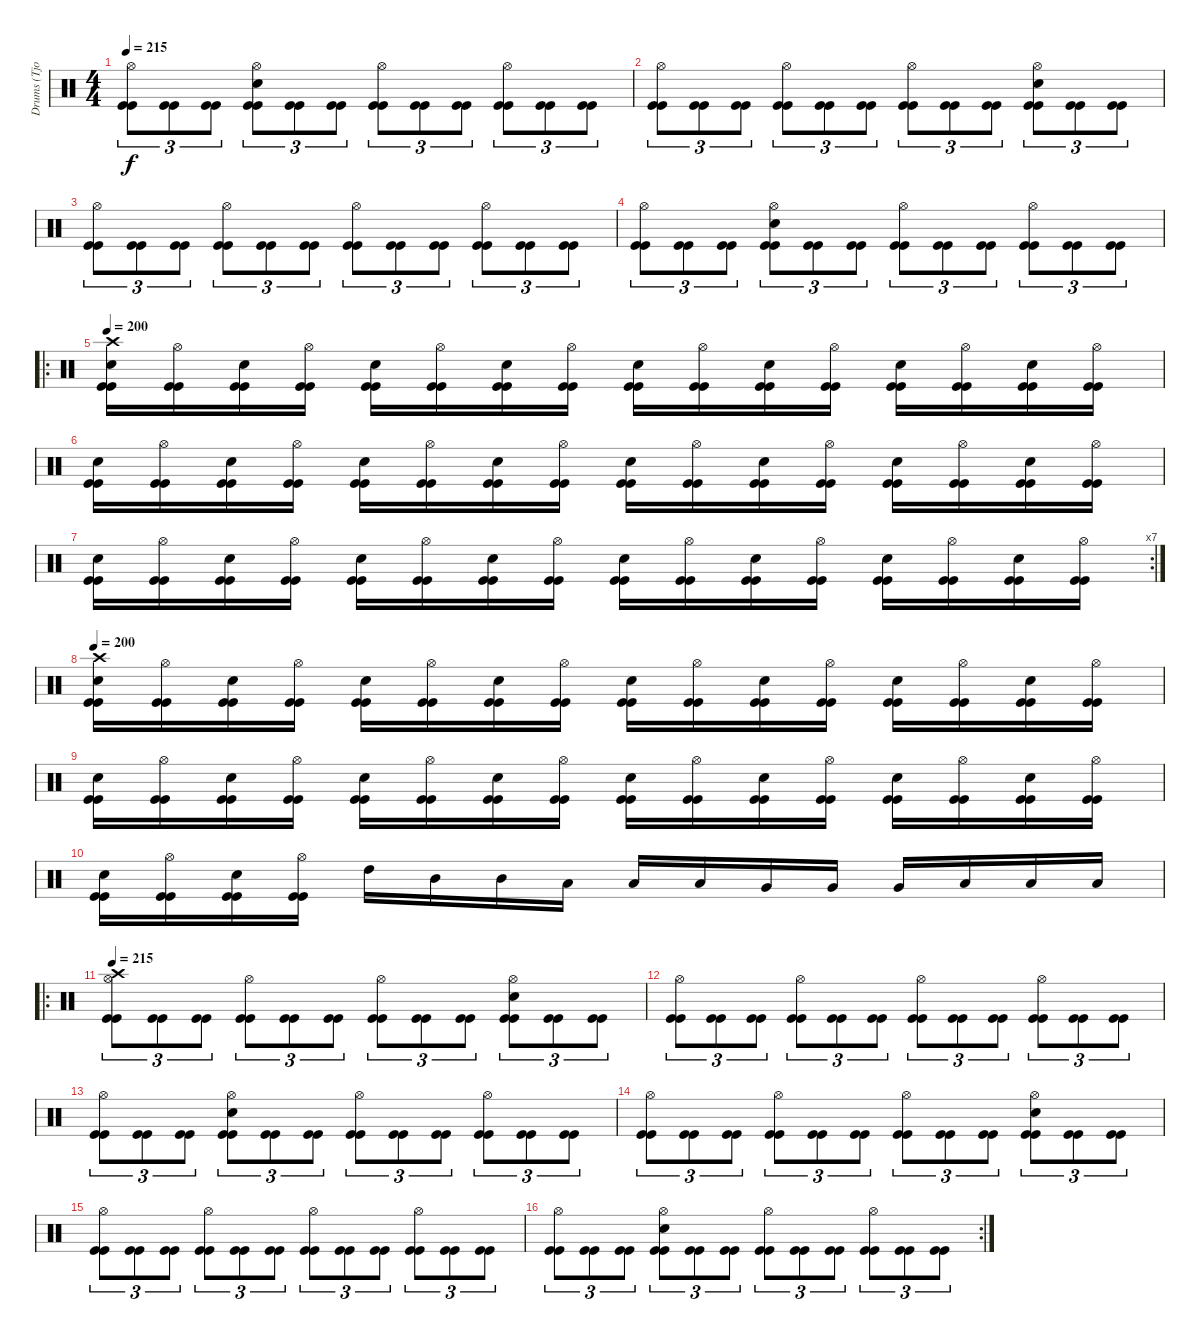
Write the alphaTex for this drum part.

\track ("Drums (Tjodalv)" "Drums (Tjo") {instrument percussion}
\staff {score}
\articulation defaults
\ts (4 4)
\tempo 215
\clef neutral
\ks c
("Hi-Hat (open)" "Kick (hit)" "Kick (hit)").8{tu (3 2) dy f} ("Kick (hit)" "Kick (hit)").8{tu (3 2)} ("Kick (hit)" "Kick (hit)").8{tu (3 2)} ("Snare (hit) 2" "Hi-Hat (open)" "Kick (hit)" "Kick (hit)").8{tu (3 2)} ("Kick (hit)" "Kick (hit)").8{tu (3 2)} ("Kick (hit)" "Kick (hit)").8{tu (3 2)} ("Hi-Hat (open)" "Kick (hit)" "Kick (hit)").8{tu (3 2)} ("Kick (hit)" "Kick (hit)").8{tu (3 2)} ("Kick (hit)" "Kick (hit)").8{tu (3 2)} ("Hi-Hat (open)" "Kick (hit)" "Kick (hit)").8{tu (3 2)} ("Kick (hit)" "Kick (hit)").8{tu (3 2)} ("Kick (hit)" "Kick (hit)").8{tu (3 2)} |
("Hi-Hat (open)" "Kick (hit)" "Kick (hit)").8{tu (3 2)} ("Kick (hit)" "Kick (hit)").8{tu (3 2)} ("Kick (hit)" "Kick (hit)").8{tu (3 2)} ("Hi-Hat (open)" "Kick (hit)" "Kick (hit)").8{tu (3 2)} ("Kick (hit)" "Kick (hit)").8{tu (3 2)} ("Kick (hit)" "Kick (hit)").8{tu (3 2)} ("Hi-Hat (open)" "Kick (hit)" "Kick (hit)").8{tu (3 2)} ("Kick (hit)" "Kick (hit)").8{tu (3 2)} ("Kick (hit)" "Kick (hit)").8{tu (3 2)} ("Snare (hit) 2" "Hi-Hat (open)" "Kick (hit)" "Kick (hit)").8{tu (3 2)} ("Kick (hit)" "Kick (hit)").8{tu (3 2)} ("Kick (hit)" "Kick (hit)").8{tu (3 2)} |
("Hi-Hat (open)" "Kick (hit)" "Kick (hit)").8{tu (3 2)} ("Kick (hit)" "Kick (hit)").8{tu (3 2)} ("Kick (hit)" "Kick (hit)").8{tu (3 2)} ("Hi-Hat (open)" "Kick (hit)" "Kick (hit)").8{tu (3 2)} ("Kick (hit)" "Kick (hit)").8{tu (3 2)} ("Kick (hit)" "Kick (hit)").8{tu (3 2)} ("Hi-Hat (open)" "Kick (hit)" "Kick (hit)").8{tu (3 2)} ("Kick (hit)" "Kick (hit)").8{tu (3 2)} ("Kick (hit)" "Kick (hit)").8{tu (3 2)} ("Hi-Hat (open)" "Kick (hit)" "Kick (hit)").8{tu (3 2)} ("Kick (hit)" "Kick (hit)").8{tu (3 2)} ("Kick (hit)" "Kick (hit)").8{tu (3 2)} |
("Hi-Hat (open)" "Kick (hit)" "Kick (hit)").8{tu (3 2)} ("Kick (hit)" "Kick (hit)").8{tu (3 2)} ("Kick (hit)" "Kick (hit)").8{tu (3 2)} ("Snare (hit) 2" "Hi-Hat (open)" "Kick (hit)" "Kick (hit)").8{tu (3 2)} ("Kick (hit)" "Kick (hit)").8{tu (3 2)} ("Kick (hit)" "Kick (hit)").8{tu (3 2)} ("Hi-Hat (open)" "Kick (hit)" "Kick (hit)").8{tu (3 2)} ("Kick (hit)" "Kick (hit)").8{tu (3 2)} ("Kick (hit)" "Kick (hit)").8{tu (3 2)} ("Hi-Hat (open)" "Kick (hit)" "Kick (hit)").8{tu (3 2)} ("Kick (hit)" "Kick (hit)").8{tu (3 2)} ("Kick (hit)" "Kick (hit)").8{tu (3 2)} |
\ro
\tempo 200
("Crash high (hit)" "Snare (hit) 2" "Kick (hit)" "Kick (hit)").16 ("Hi-Hat (open)" "Kick (hit)" "Kick (hit)").16 ("Snare (hit) 2" "Kick (hit)" "Kick (hit)").16 ("Hi-Hat (open)" "Kick (hit)" "Kick (hit)").16 ("Snare (hit) 2" "Kick (hit)" "Kick (hit)").16 ("Hi-Hat (open)" "Kick (hit)" "Kick (hit)").16 ("Snare (hit) 2" "Kick (hit)" "Kick (hit)").16 ("Hi-Hat (open)" "Kick (hit)" "Kick (hit)").16 ("Snare (hit) 2" "Kick (hit)" "Kick (hit)").16 ("Hi-Hat (open)" "Kick (hit)" "Kick (hit)").16 ("Snare (hit) 2" "Kick (hit)" "Kick (hit)").16 ("Hi-Hat (open)" "Kick (hit)" "Kick (hit)").16 ("Snare (hit) 2" "Kick (hit)" "Kick (hit)").16 ("Hi-Hat (open)" "Kick (hit)" "Kick (hit)").16 ("Snare (hit) 2" "Kick (hit)" "Kick (hit)").16 ("Hi-Hat (open)" "Kick (hit)" "Kick (hit)").16 |
("Snare (hit) 2" "Kick (hit)" "Kick (hit)").16 ("Hi-Hat (open)" "Kick (hit)" "Kick (hit)").16 ("Snare (hit) 2" "Kick (hit)" "Kick (hit)").16 ("Hi-Hat (open)" "Kick (hit)" "Kick (hit)").16 ("Snare (hit) 2" "Kick (hit)" "Kick (hit)").16 ("Hi-Hat (open)" "Kick (hit)" "Kick (hit)").16 ("Snare (hit) 2" "Kick (hit)" "Kick (hit)").16 ("Hi-Hat (open)" "Kick (hit)" "Kick (hit)").16 ("Snare (hit) 2" "Kick (hit)" "Kick (hit)").16 ("Hi-Hat (open)" "Kick (hit)" "Kick (hit)").16 ("Snare (hit) 2" "Kick (hit)" "Kick (hit)").16 ("Hi-Hat (open)" "Kick (hit)" "Kick (hit)").16 ("Snare (hit) 2" "Kick (hit)" "Kick (hit)").16 ("Hi-Hat (open)" "Kick (hit)" "Kick (hit)").16 ("Snare (hit) 2" "Kick (hit)" "Kick (hit)").16 ("Hi-Hat (open)" "Kick (hit)" "Kick (hit)").16 |
\rc 7
("Snare (hit) 2" "Kick (hit)" "Kick (hit)").16 ("Hi-Hat (open)" "Kick (hit)" "Kick (hit)").16 ("Snare (hit) 2" "Kick (hit)" "Kick (hit)").16 ("Hi-Hat (open)" "Kick (hit)" "Kick (hit)").16 ("Snare (hit) 2" "Kick (hit)" "Kick (hit)").16 ("Hi-Hat (open)" "Kick (hit)" "Kick (hit)").16 ("Snare (hit) 2" "Kick (hit)" "Kick (hit)").16 ("Hi-Hat (open)" "Kick (hit)" "Kick (hit)").16 ("Snare (hit) 2" "Kick (hit)" "Kick (hit)").16 ("Hi-Hat (open)" "Kick (hit)" "Kick (hit)").16 ("Snare (hit) 2" "Kick (hit)" "Kick (hit)").16 ("Hi-Hat (open)" "Kick (hit)" "Kick (hit)").16 ("Snare (hit) 2" "Kick (hit)" "Kick (hit)").16 ("Hi-Hat (open)" "Kick (hit)" "Kick (hit)").16 ("Snare (hit) 2" "Kick (hit)" "Kick (hit)").16 ("Hi-Hat (open)" "Kick (hit)" "Kick (hit)").16 |
\tempo 200
("Crash high (hit)" "Snare (hit) 2" "Kick (hit)" "Kick (hit)").16 ("Hi-Hat (open)" "Kick (hit)" "Kick (hit)").16 ("Snare (hit) 2" "Kick (hit)" "Kick (hit)").16 ("Hi-Hat (open)" "Kick (hit)" "Kick (hit)").16 ("Snare (hit) 2" "Kick (hit)" "Kick (hit)").16 ("Hi-Hat (open)" "Kick (hit)" "Kick (hit)").16 ("Snare (hit) 2" "Kick (hit)" "Kick (hit)").16 ("Hi-Hat (open)" "Kick (hit)" "Kick (hit)").16 ("Snare (hit) 2" "Kick (hit)" "Kick (hit)").16 ("Hi-Hat (open)" "Kick (hit)" "Kick (hit)").16 ("Snare (hit) 2" "Kick (hit)" "Kick (hit)").16 ("Hi-Hat (open)" "Kick (hit)" "Kick (hit)").16 ("Snare (hit) 2" "Kick (hit)" "Kick (hit)").16 ("Hi-Hat (open)" "Kick (hit)" "Kick (hit)").16 ("Snare (hit) 2" "Kick (hit)" "Kick (hit)").16 ("Hi-Hat (open)" "Kick (hit)" "Kick (hit)").16 |
("Snare (hit) 2" "Kick (hit)" "Kick (hit)").16 ("Hi-Hat (open)" "Kick (hit)" "Kick (hit)").16 ("Snare (hit) 2" "Kick (hit)" "Kick (hit)").16 ("Hi-Hat (open)" "Kick (hit)" "Kick (hit)").16 ("Snare (hit) 2" "Kick (hit)" "Kick (hit)").16 ("Hi-Hat (open)" "Kick (hit)" "Kick (hit)").16 ("Snare (hit) 2" "Kick (hit)" "Kick (hit)").16 ("Hi-Hat (open)" "Kick (hit)" "Kick (hit)").16 ("Snare (hit) 2" "Kick (hit)" "Kick (hit)").16 ("Hi-Hat (open)" "Kick (hit)" "Kick (hit)").16 ("Snare (hit) 2" "Kick (hit)" "Kick (hit)").16 ("Hi-Hat (open)" "Kick (hit)" "Kick (hit)").16 ("Snare (hit) 2" "Kick (hit)" "Kick (hit)").16 ("Hi-Hat (open)" "Kick (hit)" "Kick (hit)").16 ("Snare (hit) 2" "Kick (hit)" "Kick (hit)").16 ("Hi-Hat (open)" "Kick (hit)" "Kick (hit)").16 |
("Snare (hit) 2" "Kick (hit)" "Kick (hit)").16 ("Hi-Hat (open)" "Kick (hit)" "Kick (hit)").16 ("Snare (hit) 2" "Kick (hit)" "Kick (hit)").16 ("Hi-Hat (open)" "Kick (hit)" "Kick (hit)").16 "High Tom (hit)".16 "Mid Tom (hit)".16 "Mid Tom (hit)".16 "Low Tom (hit)".16 "Low Tom (hit)".16 "Low Tom (hit)".16 "Very Low Tom (hit)".16 "Very Low Tom (hit)".16 "Very Low Tom (hit)".16 "Low Floor Tom (hit)".16 "Low Floor Tom (hit)".16 "Low Floor Tom (hit)".16 |
\ro
\tempo 215
("Crash high (hit)" "Hi-Hat (open)" "Kick (hit)" "Kick (hit)").8{tu (3 2)} ("Kick (hit)" "Kick (hit)").8{tu (3 2)} ("Kick (hit)" "Kick (hit)").8{tu (3 2)} ("Hi-Hat (open)" "Kick (hit)" "Kick (hit)").8{tu (3 2)} ("Kick (hit)" "Kick (hit)").8{tu (3 2)} ("Kick (hit)" "Kick (hit)").8{tu (3 2)} ("Hi-Hat (open)" "Kick (hit)" "Kick (hit)").8{tu (3 2)} ("Kick (hit)" "Kick (hit)").8{tu (3 2)} ("Kick (hit)" "Kick (hit)").8{tu (3 2)} ("Snare (hit) 2" "Hi-Hat (open)" "Kick (hit)" "Kick (hit)").8{tu (3 2)} ("Kick (hit)" "Kick (hit)").8{tu (3 2)} ("Kick (hit)" "Kick (hit)").8{tu (3 2)} |
("Hi-Hat (open)" "Kick (hit)" "Kick (hit)").8{tu (3 2)} ("Kick (hit)" "Kick (hit)").8{tu (3 2)} ("Kick (hit)" "Kick (hit)").8{tu (3 2)} ("Hi-Hat (open)" "Kick (hit)" "Kick (hit)").8{tu (3 2)} ("Kick (hit)" "Kick (hit)").8{tu (3 2)} ("Kick (hit)" "Kick (hit)").8{tu (3 2)} ("Hi-Hat (open)" "Kick (hit)" "Kick (hit)").8{tu (3 2)} ("Kick (hit)" "Kick (hit)").8{tu (3 2)} ("Kick (hit)" "Kick (hit)").8{tu (3 2)} ("Hi-Hat (open)" "Kick (hit)" "Kick (hit)").8{tu (3 2)} ("Kick (hit)" "Kick (hit)").8{tu (3 2)} ("Kick (hit)" "Kick (hit)").8{tu (3 2)} |
("Hi-Hat (open)" "Kick (hit)" "Kick (hit)").8{tu (3 2)} ("Kick (hit)" "Kick (hit)").8{tu (3 2)} ("Kick (hit)" "Kick (hit)").8{tu (3 2)} ("Snare (hit) 2" "Hi-Hat (open)" "Kick (hit)" "Kick (hit)").8{tu (3 2)} ("Kick (hit)" "Kick (hit)").8{tu (3 2)} ("Kick (hit)" "Kick (hit)").8{tu (3 2)} ("Hi-Hat (open)" "Kick (hit)" "Kick (hit)").8{tu (3 2)} ("Kick (hit)" "Kick (hit)").8{tu (3 2)} ("Kick (hit)" "Kick (hit)").8{tu (3 2)} ("Hi-Hat (open)" "Kick (hit)" "Kick (hit)").8{tu (3 2)} ("Kick (hit)" "Kick (hit)").8{tu (3 2)} ("Kick (hit)" "Kick (hit)").8{tu (3 2)} |
("Hi-Hat (open)" "Kick (hit)" "Kick (hit)").8{tu (3 2)} ("Kick (hit)" "Kick (hit)").8{tu (3 2)} ("Kick (hit)" "Kick (hit)").8{tu (3 2)} ("Hi-Hat (open)" "Kick (hit)" "Kick (hit)").8{tu (3 2)} ("Kick (hit)" "Kick (hit)").8{tu (3 2)} ("Kick (hit)" "Kick (hit)").8{tu (3 2)} ("Hi-Hat (open)" "Kick (hit)" "Kick (hit)").8{tu (3 2)} ("Kick (hit)" "Kick (hit)").8{tu (3 2)} ("Kick (hit)" "Kick (hit)").8{tu (3 2)} ("Snare (hit) 2" "Hi-Hat (open)" "Kick (hit)" "Kick (hit)").8{tu (3 2)} ("Kick (hit)" "Kick (hit)").8{tu (3 2)} ("Kick (hit)" "Kick (hit)").8{tu (3 2)} |
("Hi-Hat (open)" "Kick (hit)" "Kick (hit)").8{tu (3 2)} ("Kick (hit)" "Kick (hit)").8{tu (3 2)} ("Kick (hit)" "Kick (hit)").8{tu (3 2)} ("Hi-Hat (open)" "Kick (hit)" "Kick (hit)").8{tu (3 2)} ("Kick (hit)" "Kick (hit)").8{tu (3 2)} ("Kick (hit)" "Kick (hit)").8{tu (3 2)} ("Hi-Hat (open)" "Kick (hit)" "Kick (hit)").8{tu (3 2)} ("Kick (hit)" "Kick (hit)").8{tu (3 2)} ("Kick (hit)" "Kick (hit)").8{tu (3 2)} ("Hi-Hat (open)" "Kick (hit)" "Kick (hit)").8{tu (3 2)} ("Kick (hit)" "Kick (hit)").8{tu (3 2)} ("Kick (hit)" "Kick (hit)").8{tu (3 2)} |
\rc 2
("Hi-Hat (open)" "Kick (hit)" "Kick (hit)").8{tu (3 2)} ("Kick (hit)" "Kick (hit)").8{tu (3 2)} ("Kick (hit)" "Kick (hit)").8{tu (3 2)} ("Snare (hit) 2" "Hi-Hat (open)" "Kick (hit)" "Kick (hit)").8{tu (3 2)} ("Kick (hit)" "Kick (hit)").8{tu (3 2)} ("Kick (hit)" "Kick (hit)").8{tu (3 2)} ("Hi-Hat (open)" "Kick (hit)" "Kick (hit)").8{tu (3 2)} ("Kick (hit)" "Kick (hit)").8{tu (3 2)} ("Kick (hit)" "Kick (hit)").8{tu (3 2)} ("Hi-Hat (open)" "Kick (hit)" "Kick (hit)").8{tu (3 2)} ("Kick (hit)" "Kick (hit)").8{tu (3 2)} ("Kick (hit)" "Kick (hit)").8{tu (3 2)}
